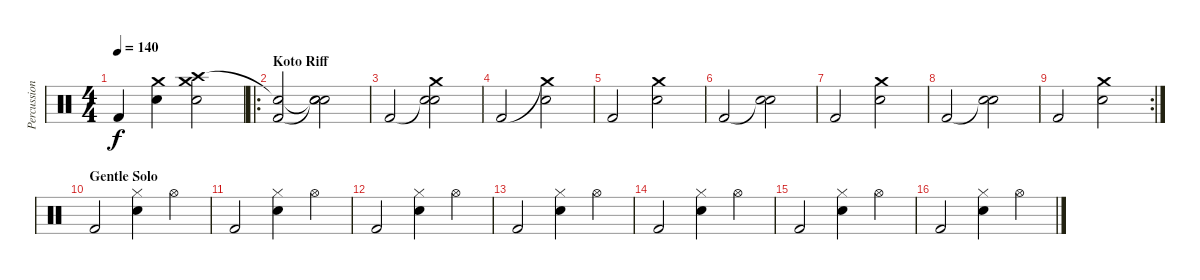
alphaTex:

\track ("Percussion" "Percussion") {instrument percussion}
\staff {score}
\articulation defaults
\ts (4 4)
\tempo 140
\clef neutral
\ks c "Kick (hit) 2".4{dy f}
("Crash medium (hit)" "Snare (hit) 2").4 ("Crash high (hit)" "Crash medium (hit)" "Snare (hit) 2").2 |
\ro
\section ("" "Koto Riff")
("Snare (hit)"{t} "Kick (hit) 2").2 ("Snare (hit)"{t} "Snare (hit)"{t} "Snare (hit) 2").2 |
"Kick (hit) 2".2 ("Snare (hit)"{t} "Crash medium (hit)" "Snare (hit) 2").2 |
"Kick (hit) 2".2 ("Crash medium (hit)"{t} "Snare (hit) 2").2 |
"Kick (hit) 2".2 ("Crash medium (hit)" "Snare (hit) 2").2 |
"Kick (hit) 2".2 ("Snare (hit)"{t} "Snare (hit) 2").2 |
"Kick (hit) 2".2 ("Crash medium (hit)" "Snare (hit) 2").2 |
"Kick (hit) 2".2 ("Snare (hit)"{t} "Snare (hit) 2").2 |
\rc 2 "Kick (hit) 2".2
("Crash medium (hit)" "Snare (hit) 2").2 |
\section ("" "Gentle Solo")
"Kick (hit) 2".2 ("Hi-Hat (closed)" "Snare (hit) 2").4 "Hi-Hat (open)".4 |
"Kick (hit) 2".2 ("Hi-Hat (closed)" "Snare (hit) 2").4 "Hi-Hat (open)".4 |
"Kick (hit) 2".2 ("Hi-Hat (closed)" "Snare (hit) 2").4 "Hi-Hat (open)".4 |
"Kick (hit) 2".2 ("Hi-Hat (closed)" "Snare (hit) 2").4 "Hi-Hat (open)".4 |
"Kick (hit) 2".2 ("Hi-Hat (closed)" "Snare (hit) 2").4 "Hi-Hat (open)".4 |
"Kick (hit) 2".2 ("Hi-Hat (closed)" "Snare (hit) 2").4 "Hi-Hat (open)".4 |
"Kick (hit) 2".2 ("Hi-Hat (closed)" "Snare (hit) 2").4 "Hi-Hat (open)".4
